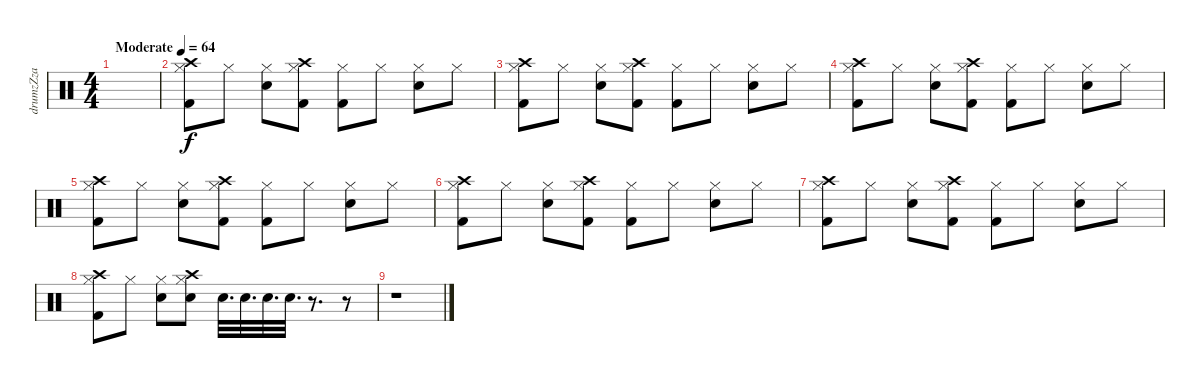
\track ("drumzZza" "drumzZza") {instrument percussion}
\staff {score}
\articulation defaults
\ts (4 4)
\tempo (64 "Moderate")
\clef neutral
\ks c
|
("Hi-Hat (closed)" "Crash high (hit)" "Kick (hit) 2").8 "Hi-Hat (closed)".8 ("Hi-Hat (closed)" "Snare (hit) 2").8 ("Hi-Hat (closed)" "Kick (hit) 2" "Crash high (hit)").8 ("Hi-Hat (closed)" "Kick (hit) 2").8 "Hi-Hat (closed)".8 ("Hi-Hat (closed)" "Snare (hit) 2").8 "Hi-Hat (closed)".8 |
("Hi-Hat (closed)" "Crash high (hit)" "Kick (hit) 2").8 "Hi-Hat (closed)".8 ("Hi-Hat (closed)" "Snare (hit) 2").8 ("Hi-Hat (closed)" "Kick (hit) 2" "Crash high (hit)").8 ("Hi-Hat (closed)" "Kick (hit) 2").8 "Hi-Hat (closed)".8 ("Hi-Hat (closed)" "Snare (hit) 2").8 "Hi-Hat (closed)".8 |
("Hi-Hat (closed)" "Crash high (hit)" "Kick (hit) 2").8 "Hi-Hat (closed)".8 ("Hi-Hat (closed)" "Snare (hit) 2").8 ("Hi-Hat (closed)" "Kick (hit) 2" "Crash high (hit)").8 ("Hi-Hat (closed)" "Kick (hit) 2").8 "Hi-Hat (closed)".8 ("Hi-Hat (closed)" "Snare (hit) 2").8 "Hi-Hat (closed)".8 |
("Hi-Hat (closed)" "Crash high (hit)" "Kick (hit) 2").8 "Hi-Hat (closed)".8 ("Hi-Hat (closed)" "Snare (hit) 2").8 ("Hi-Hat (closed)" "Kick (hit) 2" "Crash high (hit)").8 ("Hi-Hat (closed)" "Kick (hit) 2").8 "Hi-Hat (closed)".8 ("Hi-Hat (closed)" "Snare (hit) 2").8 "Hi-Hat (closed)".8 |
("Hi-Hat (closed)" "Crash high (hit)" "Kick (hit) 2").8 "Hi-Hat (closed)".8 ("Hi-Hat (closed)" "Snare (hit) 2").8 ("Hi-Hat (closed)" "Kick (hit) 2" "Crash high (hit)").8 ("Hi-Hat (closed)" "Kick (hit) 2").8 "Hi-Hat (closed)".8 ("Hi-Hat (closed)" "Snare (hit) 2").8 "Hi-Hat (closed)".8 |
("Hi-Hat (closed)" "Crash high (hit)" "Kick (hit) 2").8 "Hi-Hat (closed)".8 ("Hi-Hat (closed)" "Snare (hit) 2").8 ("Hi-Hat (closed)" "Kick (hit) 2" "Crash high (hit)").8 ("Hi-Hat (closed)" "Kick (hit) 2").8 "Hi-Hat (closed)".8 ("Hi-Hat (closed)" "Snare (hit) 2").8 "Hi-Hat (closed)".8 |
("Hi-Hat (closed)" "Crash high (hit)" "Kick (hit) 2").8 "Hi-Hat (closed)".8 ("Hi-Hat (closed)" "Snare (hit) 2").8 ("Hi-Hat (closed)" "Snare (hit) 2" "Crash high (hit)").8 "Snare (hit) 2".32{d} "Snare (hit) 2".32{d} "Snare (hit) 2".32{d} "Snare (hit) 2".32{d} r.8{d} r.8 |
r.1
